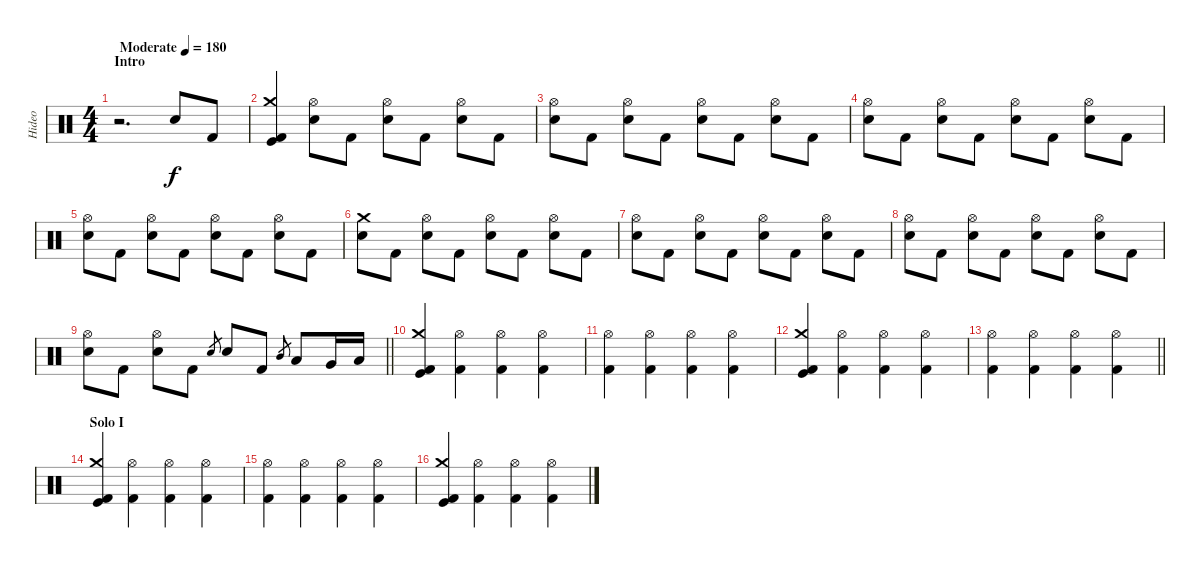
\track ("Hideo" "Hideo") {instrument percussion}
\staff {score}
\articulation defaults
\ts (4 4)
\section ("" "Intro")
\tempo (180 "Moderate")
\clef neutral
\ks c
r.2{d dy f} "Electric Snare (hit)".8 "Kick (hit) 2".8 |
("Crash medium (hit)" "Kick (hit) 2" "Kick (hit)").4 ("Hi-Hat (open)" "Electric Snare (hit)").8 "Kick (hit) 2".8 ("Hi-Hat (open)" "Electric Snare (hit)").8 "Kick (hit) 2".8 ("Hi-Hat (open)" "Electric Snare (hit)").8 "Kick (hit) 2".8 |
("Hi-Hat (open)" "Electric Snare (hit)").8 "Kick (hit) 2".8 ("Hi-Hat (open)" "Electric Snare (hit)").8 "Kick (hit) 2".8 ("Hi-Hat (open)" "Electric Snare (hit)").8 "Kick (hit) 2".8 ("Hi-Hat (open)" "Electric Snare (hit)").8 "Kick (hit) 2".8 |
("Hi-Hat (open)" "Electric Snare (hit)").8 "Kick (hit) 2".8 ("Hi-Hat (open)" "Electric Snare (hit)").8 "Kick (hit) 2".8 ("Hi-Hat (open)" "Electric Snare (hit)").8 "Kick (hit) 2".8 ("Hi-Hat (open)" "Electric Snare (hit)").8 "Kick (hit) 2".8 |
("Hi-Hat (open)" "Electric Snare (hit)").8 "Kick (hit) 2".8 ("Hi-Hat (open)" "Electric Snare (hit)").8 "Kick (hit) 2".8 ("Hi-Hat (open)" "Electric Snare (hit)").8 "Kick (hit) 2".8 ("Hi-Hat (open)" "Electric Snare (hit)").8 "Kick (hit) 2".8 |
("Crash medium (hit)" "Electric Snare (hit)").8 "Kick (hit) 2".8 ("Hi-Hat (open)" "Electric Snare (hit)").8 "Kick (hit) 2".8 ("Hi-Hat (open)" "Electric Snare (hit)").8 "Kick (hit) 2".8 ("Hi-Hat (open)" "Electric Snare (hit)").8 "Kick (hit) 2".8 |
("Hi-Hat (open)" "Electric Snare (hit)").8 "Kick (hit) 2".8 ("Hi-Hat (open)" "Electric Snare (hit)").8 "Kick (hit) 2".8 ("Hi-Hat (open)" "Electric Snare (hit)").8 "Kick (hit) 2".8 ("Hi-Hat (open)" "Electric Snare (hit)").8 "Kick (hit) 2".8 |
("Hi-Hat (open)" "Electric Snare (hit)").8 "Kick (hit) 2".8 ("Hi-Hat (open)" "Electric Snare (hit)").8 "Kick (hit) 2".8 ("Hi-Hat (open)" "Electric Snare (hit)").8 "Kick (hit) 2".8 ("Hi-Hat (open)" "Electric Snare (hit)").8 "Kick (hit) 2".8 |
\barLineRight lightlight
("Hi-Hat (open)" "Electric Snare (hit)").8 "Kick (hit) 2".8 ("Hi-Hat (open)" "Electric Snare (hit)").8 "Kick (hit) 2".8 "Electric Snare (hit)".8{gr} "Electric Snare (hit)".8 "Kick (hit) 2".8 "Mid Tom (hit)".8{gr} "Low Tom (hit)".8 "Very Low Tom (hit)".16 "Low Floor Tom (hit)".16 |
("Crash medium (hit)" "Kick (hit) 2" "Kick (hit)").4 ("Hi-Hat (open)" "Kick (hit) 2").4 ("Hi-Hat (open)" "Kick (hit) 2").4 ("Hi-Hat (open)" "Kick (hit) 2").4 |
("Hi-Hat (open)" "Kick (hit) 2").4 ("Hi-Hat (open)" "Kick (hit) 2").4 ("Hi-Hat (open)" "Kick (hit) 2").4 ("Hi-Hat (open)" "Kick (hit) 2").4 |
("Crash medium (hit)" "Kick (hit) 2" "Kick (hit)").4 ("Hi-Hat (open)" "Kick (hit) 2").4 ("Hi-Hat (open)" "Kick (hit) 2").4 ("Hi-Hat (open)" "Kick (hit) 2").4 |
\barLineRight lightlight
("Hi-Hat (open)" "Kick (hit) 2").4 ("Hi-Hat (open)" "Kick (hit) 2").4 ("Hi-Hat (open)" "Kick (hit) 2").4 ("Hi-Hat (open)" "Kick (hit) 2").4 |
\section ("" "Solo I")
("Crash medium (hit)" "Kick (hit) 2" "Kick (hit)").4 ("Hi-Hat (open)" "Kick (hit) 2").4 ("Hi-Hat (open)" "Kick (hit) 2").4 ("Hi-Hat (open)" "Kick (hit) 2").4 |
("Hi-Hat (open)" "Kick (hit) 2").4 ("Hi-Hat (open)" "Kick (hit) 2").4 ("Hi-Hat (open)" "Kick (hit) 2").4 ("Hi-Hat (open)" "Kick (hit) 2").4 |
("Crash medium (hit)" "Kick (hit) 2" "Kick (hit)").4 ("Hi-Hat (open)" "Kick (hit) 2").4 ("Hi-Hat (open)" "Kick (hit) 2").4 ("Hi-Hat (open)" "Kick (hit) 2").4
